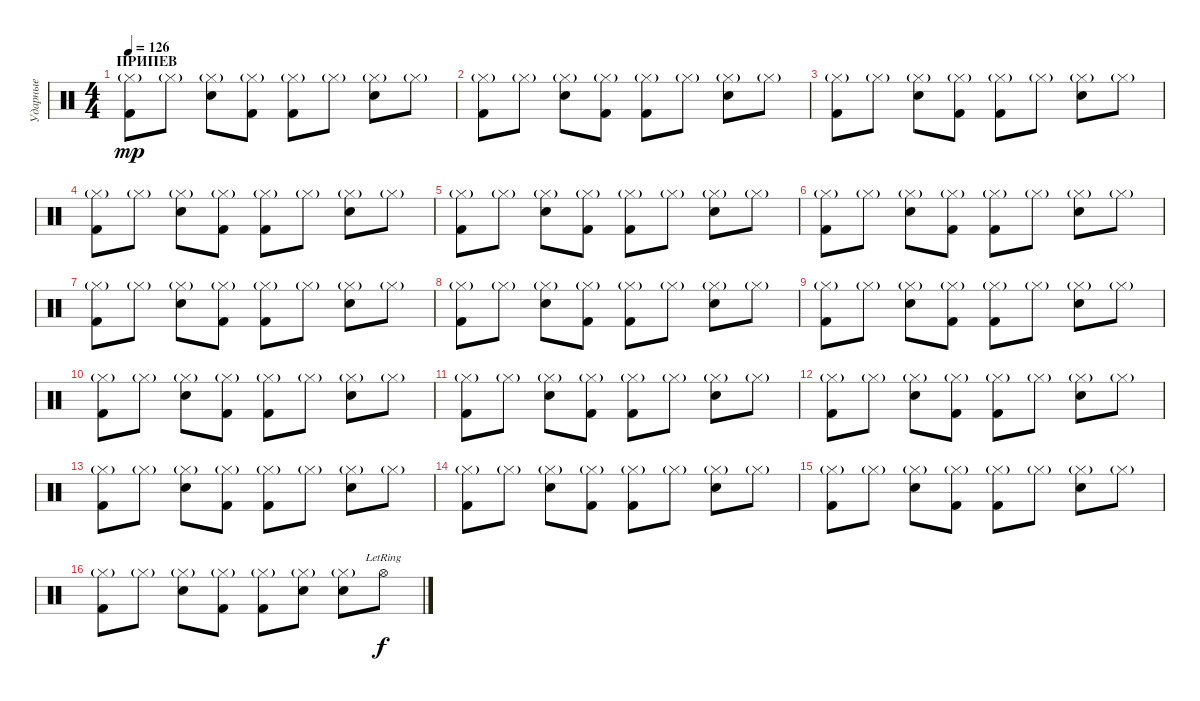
\track ("Ударные" "Ударные") {instrument percussion}
\staff {score}
\articulation defaults
\ts (4 4)
\section ("" "ПРИПЕВ")
\tempo 126
\clef neutral
\ks c
("Hi-Hat (closed)"{g} "Kick (hit) 2").8{dy mp} "Hi-Hat (closed)"{g}.8 ("Hi-Hat (closed)"{g} "Snare (hit) 2").8 ("Hi-Hat (closed)"{g} "Kick (hit) 2").8 ("Hi-Hat (closed)"{g} "Kick (hit) 2").8 "Hi-Hat (closed)"{g}.8 ("Hi-Hat (closed)"{g} "Snare (hit) 2").8 "Hi-Hat (closed)"{g}.8 |
("Hi-Hat (closed)"{g} "Kick (hit) 2").8 "Hi-Hat (closed)"{g}.8 ("Hi-Hat (closed)"{g} "Snare (hit) 2").8 ("Hi-Hat (closed)"{g} "Kick (hit) 2").8 ("Hi-Hat (closed)"{g} "Kick (hit) 2").8 "Hi-Hat (closed)"{g}.8 ("Hi-Hat (closed)"{g} "Snare (hit) 2").8 "Hi-Hat (closed)"{g}.8 |
("Hi-Hat (closed)"{g} "Kick (hit) 2").8 "Hi-Hat (closed)"{g}.8 ("Hi-Hat (closed)"{g} "Snare (hit) 2").8 ("Hi-Hat (closed)"{g} "Kick (hit) 2").8 ("Hi-Hat (closed)"{g} "Kick (hit) 2").8 "Hi-Hat (closed)"{g}.8 ("Hi-Hat (closed)"{g} "Snare (hit) 2").8 "Hi-Hat (closed)"{g}.8 |
("Hi-Hat (closed)"{g} "Kick (hit) 2").8 "Hi-Hat (closed)"{g}.8 ("Hi-Hat (closed)"{g} "Snare (hit) 2").8 ("Hi-Hat (closed)"{g} "Kick (hit) 2").8 ("Hi-Hat (closed)"{g} "Kick (hit) 2").8 "Hi-Hat (closed)"{g}.8 ("Hi-Hat (closed)"{g} "Snare (hit) 2").8 "Hi-Hat (closed)"{g}.8 |
("Hi-Hat (closed)"{g} "Kick (hit) 2").8 "Hi-Hat (closed)"{g}.8 ("Hi-Hat (closed)"{g} "Snare (hit) 2").8 ("Hi-Hat (closed)"{g} "Kick (hit) 2").8 ("Hi-Hat (closed)"{g} "Kick (hit) 2").8 "Hi-Hat (closed)"{g}.8 ("Hi-Hat (closed)"{g} "Snare (hit) 2").8 "Hi-Hat (closed)"{g}.8 |
("Hi-Hat (closed)"{g} "Kick (hit) 2").8 "Hi-Hat (closed)"{g}.8 ("Hi-Hat (closed)"{g} "Snare (hit) 2").8 ("Hi-Hat (closed)"{g} "Kick (hit) 2").8 ("Hi-Hat (closed)"{g} "Kick (hit) 2").8 "Hi-Hat (closed)"{g}.8 ("Hi-Hat (closed)"{g} "Snare (hit) 2").8 "Hi-Hat (closed)"{g}.8 |
("Hi-Hat (closed)"{g} "Kick (hit) 2").8 "Hi-Hat (closed)"{g}.8 ("Hi-Hat (closed)"{g} "Snare (hit) 2").8 ("Hi-Hat (closed)"{g} "Kick (hit) 2").8 ("Hi-Hat (closed)"{g} "Kick (hit) 2").8 "Hi-Hat (closed)"{g}.8 ("Hi-Hat (closed)"{g} "Snare (hit) 2").8 "Hi-Hat (closed)"{g}.8 |
("Hi-Hat (closed)"{g} "Kick (hit) 2").8 "Hi-Hat (closed)"{g}.8 ("Hi-Hat (closed)"{g} "Snare (hit) 2").8 ("Hi-Hat (closed)"{g} "Kick (hit) 2").8 ("Hi-Hat (closed)"{g} "Kick (hit) 2").8 "Hi-Hat (closed)"{g}.8 ("Hi-Hat (closed)"{g} "Snare (hit) 2").8 "Hi-Hat (closed)"{g}.8 |
("Hi-Hat (closed)"{g} "Kick (hit) 2").8 "Hi-Hat (closed)"{g}.8 ("Hi-Hat (closed)"{g} "Snare (hit) 2").8 ("Hi-Hat (closed)"{g} "Kick (hit) 2").8 ("Hi-Hat (closed)"{g} "Kick (hit) 2").8 "Hi-Hat (closed)"{g}.8 ("Hi-Hat (closed)"{g} "Snare (hit) 2").8 "Hi-Hat (closed)"{g}.8 |
("Hi-Hat (closed)"{g} "Kick (hit) 2").8 "Hi-Hat (closed)"{g}.8 ("Hi-Hat (closed)"{g} "Snare (hit) 2").8 ("Hi-Hat (closed)"{g} "Kick (hit) 2").8 ("Hi-Hat (closed)"{g} "Kick (hit) 2").8 "Hi-Hat (closed)"{g}.8 ("Hi-Hat (closed)"{g} "Snare (hit) 2").8 "Hi-Hat (closed)"{g}.8 |
("Hi-Hat (closed)"{g} "Kick (hit) 2").8 "Hi-Hat (closed)"{g}.8 ("Hi-Hat (closed)"{g} "Snare (hit) 2").8 ("Hi-Hat (closed)"{g} "Kick (hit) 2").8 ("Hi-Hat (closed)"{g} "Kick (hit) 2").8 "Hi-Hat (closed)"{g}.8 ("Hi-Hat (closed)"{g} "Snare (hit) 2").8 "Hi-Hat (closed)"{g}.8 |
("Hi-Hat (closed)"{g} "Kick (hit) 2").8 "Hi-Hat (closed)"{g}.8 ("Hi-Hat (closed)"{g} "Snare (hit) 2").8 ("Hi-Hat (closed)"{g} "Kick (hit) 2").8 ("Hi-Hat (closed)"{g} "Kick (hit) 2").8 "Hi-Hat (closed)"{g}.8 ("Hi-Hat (closed)"{g} "Snare (hit) 2").8 "Hi-Hat (closed)"{g}.8 |
("Hi-Hat (closed)"{g} "Kick (hit) 2").8 "Hi-Hat (closed)"{g}.8 ("Hi-Hat (closed)"{g} "Snare (hit) 2").8 ("Hi-Hat (closed)"{g} "Kick (hit) 2").8 ("Hi-Hat (closed)"{g} "Kick (hit) 2").8 "Hi-Hat (closed)"{g}.8 ("Hi-Hat (closed)"{g} "Snare (hit) 2").8 "Hi-Hat (closed)"{g}.8 |
("Hi-Hat (closed)"{g} "Kick (hit) 2").8 "Hi-Hat (closed)"{g}.8 ("Hi-Hat (closed)"{g} "Snare (hit) 2").8 ("Hi-Hat (closed)"{g} "Kick (hit) 2").8 ("Hi-Hat (closed)"{g} "Kick (hit) 2").8 "Hi-Hat (closed)"{g}.8 ("Hi-Hat (closed)"{g} "Snare (hit) 2").8 "Hi-Hat (closed)"{g}.8 |
("Hi-Hat (closed)"{g} "Kick (hit) 2").8 "Hi-Hat (closed)"{g}.8 ("Hi-Hat (closed)"{g} "Snare (hit) 2").8 ("Hi-Hat (closed)"{g} "Kick (hit) 2").8 ("Hi-Hat (closed)"{g} "Kick (hit) 2").8 "Hi-Hat (closed)"{g}.8 ("Hi-Hat (closed)"{g} "Snare (hit) 2").8 "Hi-Hat (closed)"{g}.8 |
("Hi-Hat (closed)"{g} "Kick (hit) 2").8 "Hi-Hat (closed)"{g}.8 ("Hi-Hat (closed)"{g} "Snare (hit) 2").8 ("Hi-Hat (closed)"{g} "Kick (hit) 2").8 ("Hi-Hat (closed)"{g} "Kick (hit) 2").8 ("Hi-Hat (closed)"{g} "Snare (hit) 2").8 ("Hi-Hat (closed)"{g} "Snare (hit) 2").8 "Hi-Hat (open)"{lr}.8{dy f}
